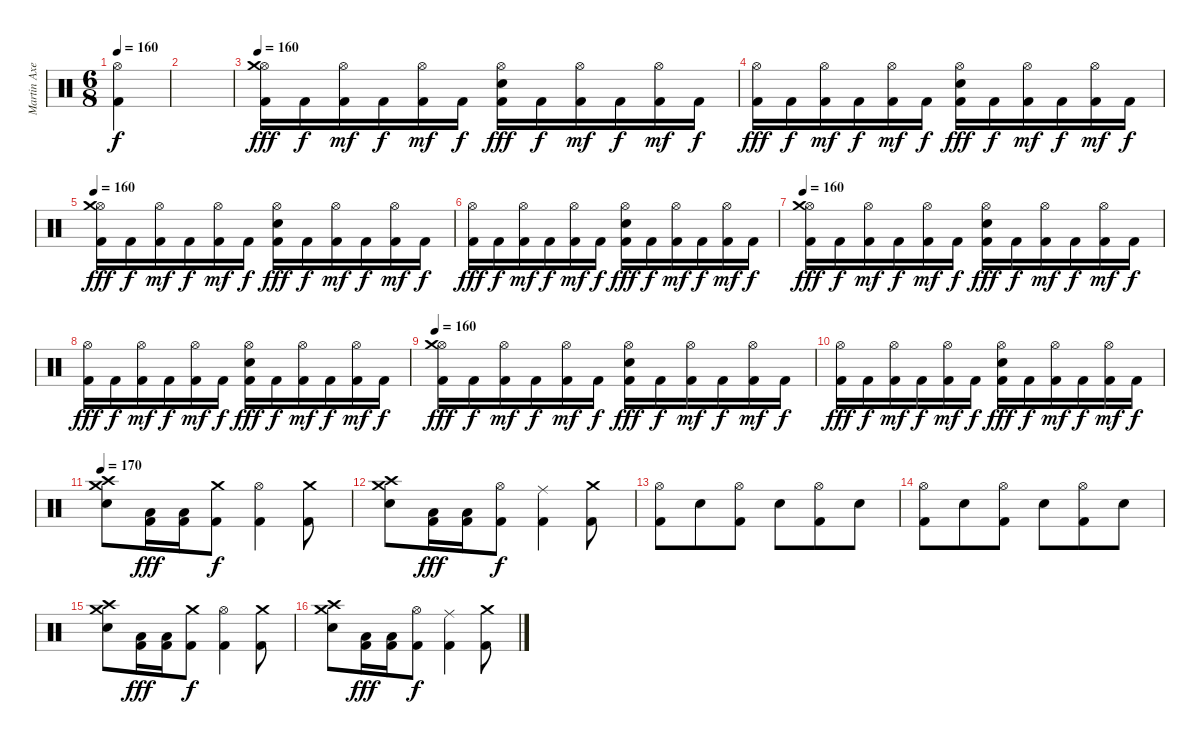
\track ("Martin Axenrot" "Martin Axe") {instrument percussion}
\staff
\articulation defaults
\ts (6 8)
\tempo 160
\clef neutral
\ks c
("Hi-Hat (open)" "Kick (hit) 2").4{dy f} |
|
\tempo 160
("Hi-Hat (open)" "Crash medium (hit)" "Kick (hit) 2").16{dy fff} "Kick (hit) 2".16{dy f} ("Hi-Hat (open)" "Kick (hit) 2").16{dy mf} "Kick (hit) 2".16{dy f} ("Hi-Hat (open)" "Kick (hit) 2").16{dy mf} "Kick (hit) 2".16{dy f} ("Hi-Hat (open)" "Snare (hit) 2" "Kick (hit) 2").16{dy fff} "Kick (hit) 2".16{dy f} ("Hi-Hat (open)" "Kick (hit) 2").16{dy mf} "Kick (hit) 2".16{dy f} ("Hi-Hat (open)" "Kick (hit) 2").16{dy mf} "Kick (hit) 2".16{dy f} |
("Hi-Hat (open)" "Kick (hit) 2").16{dy fff} "Kick (hit) 2".16{dy f} ("Hi-Hat (open)" "Kick (hit) 2").16{dy mf} "Kick (hit) 2".16{dy f} ("Hi-Hat (open)" "Kick (hit) 2").16{dy mf} "Kick (hit) 2".16{dy f} ("Hi-Hat (open)" "Snare (hit) 2" "Kick (hit) 2").16{dy fff} "Kick (hit) 2".16{dy f} ("Hi-Hat (open)" "Kick (hit) 2").16{dy mf} "Kick (hit) 2".16{dy f} ("Hi-Hat (open)" "Kick (hit) 2").16{dy mf} "Kick (hit) 2".16{dy f} |
\tempo 160
("Hi-Hat (open)" "Crash medium (hit)" "Kick (hit) 2").16{dy fff} "Kick (hit) 2".16{dy f} ("Hi-Hat (open)" "Kick (hit) 2").16{dy mf} "Kick (hit) 2".16{dy f} ("Hi-Hat (open)" "Kick (hit) 2").16{dy mf} "Kick (hit) 2".16{dy f} ("Hi-Hat (open)" "Snare (hit) 2" "Kick (hit) 2").16{dy fff} "Kick (hit) 2".16{dy f} ("Hi-Hat (open)" "Kick (hit) 2").16{dy mf} "Kick (hit) 2".16{dy f} ("Hi-Hat (open)" "Kick (hit) 2").16{dy mf} "Kick (hit) 2".16{dy f} |
("Hi-Hat (open)" "Kick (hit) 2").16{dy fff} "Kick (hit) 2".16{dy f} ("Hi-Hat (open)" "Kick (hit) 2").16{dy mf} "Kick (hit) 2".16{dy f} ("Hi-Hat (open)" "Kick (hit) 2").16{dy mf} "Kick (hit) 2".16{dy f} ("Hi-Hat (open)" "Snare (hit) 2" "Kick (hit) 2").16{dy fff} "Kick (hit) 2".16{dy f} ("Hi-Hat (open)" "Kick (hit) 2").16{dy mf} "Kick (hit) 2".16{dy f} ("Hi-Hat (open)" "Kick (hit) 2").16{dy mf} "Kick (hit) 2".16{dy f} |
\tempo 160
("Hi-Hat (open)" "Crash medium (hit)" "Kick (hit) 2").16{dy fff} "Kick (hit) 2".16{dy f} ("Hi-Hat (open)" "Kick (hit) 2").16{dy mf} "Kick (hit) 2".16{dy f} ("Hi-Hat (open)" "Kick (hit) 2").16{dy mf} "Kick (hit) 2".16{dy f} ("Hi-Hat (open)" "Snare (hit) 2" "Kick (hit) 2").16{dy fff} "Kick (hit) 2".16{dy f} ("Hi-Hat (open)" "Kick (hit) 2").16{dy mf} "Kick (hit) 2".16{dy f} ("Hi-Hat (open)" "Kick (hit) 2").16{dy mf} "Kick (hit) 2".16{dy f} |
("Hi-Hat (open)" "Kick (hit) 2").16{dy fff} "Kick (hit) 2".16{dy f} ("Hi-Hat (open)" "Kick (hit) 2").16{dy mf} "Kick (hit) 2".16{dy f} ("Hi-Hat (open)" "Kick (hit) 2").16{dy mf} "Kick (hit) 2".16{dy f} ("Hi-Hat (open)" "Snare (hit) 2" "Kick (hit) 2").16{dy fff} "Kick (hit) 2".16{dy f} ("Hi-Hat (open)" "Kick (hit) 2").16{dy mf} "Kick (hit) 2".16{dy f} ("Hi-Hat (open)" "Kick (hit) 2").16{dy mf} "Kick (hit) 2".16{dy f} |
\tempo 160
("Hi-Hat (open)" "Crash medium (hit)" "Kick (hit) 2").16{dy fff} "Kick (hit) 2".16{dy f} ("Hi-Hat (open)" "Kick (hit) 2").16{dy mf} "Kick (hit) 2".16{dy f} ("Hi-Hat (open)" "Kick (hit) 2").16{dy mf} "Kick (hit) 2".16{dy f} ("Hi-Hat (open)" "Snare (hit) 2" "Kick (hit) 2").16{dy fff} "Kick (hit) 2".16{dy f} ("Hi-Hat (open)" "Kick (hit) 2").16{dy mf} "Kick (hit) 2".16{dy f} ("Hi-Hat (open)" "Kick (hit) 2").16{dy mf} "Kick (hit) 2".16{dy f} |
("Hi-Hat (open)" "Kick (hit) 2").16{dy fff} "Kick (hit) 2".16{dy f} ("Hi-Hat (open)" "Kick (hit) 2").16{dy mf} "Kick (hit) 2".16{dy f} ("Hi-Hat (open)" "Kick (hit) 2").16{dy mf} "Kick (hit) 2".16{dy f} ("Hi-Hat (open)" "Snare (hit) 2" "Kick (hit) 2").16{dy fff} "Kick (hit) 2".16{dy f} ("Hi-Hat (open)" "Kick (hit) 2").16{dy mf} "Kick (hit) 2".16{dy f} ("Hi-Hat (open)" "Kick (hit) 2").16{dy mf} "Kick (hit) 2".16{dy f} |
\tempo 170
("Crash high (hit)" "Crash medium (hit)" "Snare (hit) 2").8 ("Low Tom (hit)" "Kick (hit) 2").16{dy fff} ("Low Tom (hit)" "Kick (hit) 2").16 ("Crash medium (hit)" "Kick (hit) 2").8{dy f} ("Hi-Hat (open)" "Kick (hit) 2").4 ("Crash medium (hit)" "Kick (hit) 2").8 |
("Crash high (hit)" "Crash medium (hit)" "Snare (hit) 2").8 ("Low Tom (hit)" "Kick (hit) 2").16{dy fff} ("Low Tom (hit)" "Kick (hit) 2").16 ("Hi-Hat (open)" "Kick (hit) 2").8{dy f} ("Ride (middle)" "Kick (hit) 2").4 ("Crash medium (hit)" "Kick (hit) 2").8 |
("Hi-Hat (open)" "Kick (hit) 2").8 "Snare (hit) 2".8 ("Hi-Hat (open)" "Kick (hit) 2").8 "Snare (hit) 2".8 ("Hi-Hat (open)" "Kick (hit) 2").8 "Snare (hit) 2".8 |
("Hi-Hat (open)" "Kick (hit) 2").8 "Snare (hit) 2".8 ("Hi-Hat (open)" "Kick (hit) 2").8 "Snare (hit) 2".8 ("Hi-Hat (open)" "Kick (hit) 2").8 "Snare (hit) 2".8 |
("Crash high (hit)" "Crash medium (hit)" "Snare (hit) 2").8 ("Low Tom (hit)" "Kick (hit) 2").16{dy fff} ("Low Tom (hit)" "Kick (hit) 2").16 ("Crash medium (hit)" "Kick (hit) 2").8{dy f} ("Hi-Hat (open)" "Kick (hit) 2").4 ("Crash medium (hit)" "Kick (hit) 2").8 |
("Crash high (hit)" "Crash medium (hit)" "Snare (hit) 2").8 ("Low Tom (hit)" "Kick (hit) 2").16{dy fff} ("Low Tom (hit)" "Kick (hit) 2").16 ("Hi-Hat (open)" "Kick (hit) 2").8{dy f} ("Ride (middle)" "Kick (hit) 2").4 ("Crash medium (hit)" "Kick (hit) 2").8
